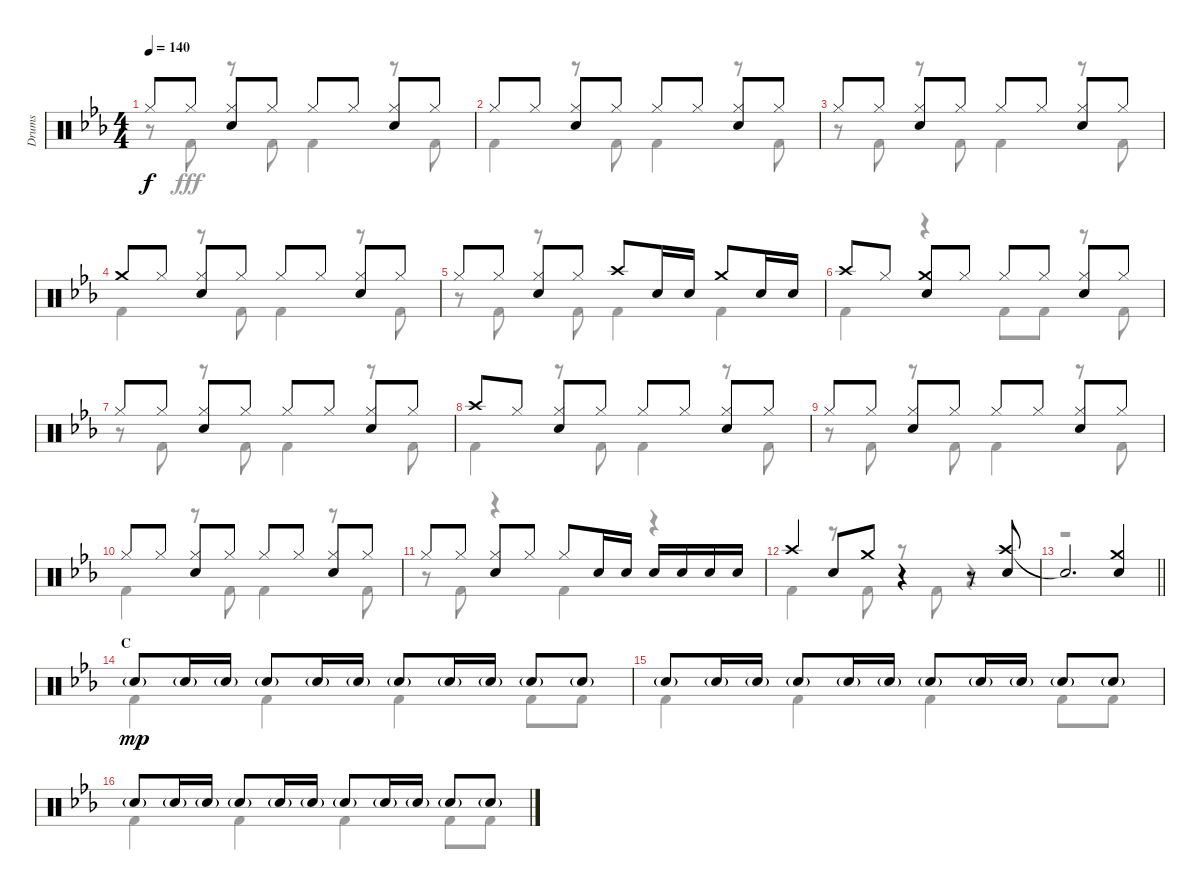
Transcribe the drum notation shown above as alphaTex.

\track ("Drums" "Drums") {instrument percussion}
\staff {score}
\articulation defaults
\voice
\ts (4 4)
\tempo 140
\clef neutral
\ks eb "Hi-Hat (closed)".8{dy f} "Hi-Hat (closed)".8
("Hi-Hat (closed)" "Snare (hit) 2").8 "Hi-Hat (closed)".8 "Hi-Hat (closed)".8 "Hi-Hat (closed)".8 ("Hi-Hat (closed)" "Snare (hit) 2").8 "Hi-Hat (closed)".8 |
"Hi-Hat (closed)".8 "Hi-Hat (closed)".8 ("Hi-Hat (closed)" "Snare (hit) 2").8 "Hi-Hat (closed)".8 "Hi-Hat (closed)".8 "Hi-Hat (closed)".8 ("Hi-Hat (closed)" "Snare (hit) 2").8 "Hi-Hat (closed)".8 |
"Hi-Hat (closed)".8 "Hi-Hat (closed)".8 ("Hi-Hat (closed)" "Snare (hit) 2").8 "Hi-Hat (closed)".8 "Hi-Hat (closed)".8 "Hi-Hat (closed)".8 ("Hi-Hat (closed)" "Snare (hit) 2").8 "Hi-Hat (closed)".8 |
"Crash medium (hit)".8 "Hi-Hat (closed)".8 ("Hi-Hat (closed)" "Snare (hit) 2").8 "Hi-Hat (closed)".8 "Hi-Hat (closed)".8 "Hi-Hat (closed)".8 ("Hi-Hat (closed)" "Snare (hit) 2").8 "Hi-Hat (closed)".8 |
"Hi-Hat (closed)".8 "Hi-Hat (closed)".8 ("Hi-Hat (closed)" "Snare (hit) 2").8 "Hi-Hat (closed)".8 "Crash high (hit)".8 "Snare (hit) 2".16 "Snare (hit) 2".16 "Crash medium (hit)".8 "Snare (hit) 2".16 "Snare (hit) 2".16 |
"Crash high (hit)".8 "Hi-Hat (closed)".8 ("Crash medium (hit)" "Snare (hit) 2").8 "Hi-Hat (closed)".8 "Hi-Hat (closed)".8 "Hi-Hat (closed)".8 ("Hi-Hat (closed)" "Snare (hit) 2").8 "Hi-Hat (closed)".8 |
"Hi-Hat (closed)".8 "Hi-Hat (closed)".8 ("Hi-Hat (closed)" "Snare (hit) 2").8 "Hi-Hat (closed)".8 "Hi-Hat (closed)".8 "Hi-Hat (closed)".8 ("Hi-Hat (closed)" "Snare (hit) 2").8 "Hi-Hat (closed)".8 |
"Crash high (hit)".8 "Hi-Hat (closed)".8 ("Hi-Hat (closed)" "Snare (hit) 2").8 "Hi-Hat (closed)".8 "Hi-Hat (closed)".8 "Hi-Hat (closed)".8 ("Hi-Hat (closed)" "Snare (hit) 2").8 "Hi-Hat (closed)".8 |
"Hi-Hat (closed)".8 "Hi-Hat (closed)".8 ("Hi-Hat (closed)" "Snare (hit) 2").8 "Hi-Hat (closed)".8 "Hi-Hat (closed)".8 "Hi-Hat (closed)".8 ("Hi-Hat (closed)" "Snare (hit) 2").8 "Hi-Hat (closed)".8 |
"Hi-Hat (closed)".8 "Hi-Hat (closed)".8 ("Hi-Hat (closed)" "Snare (hit) 2").8 "Hi-Hat (closed)".8 "Hi-Hat (closed)".8 "Hi-Hat (closed)".8 ("Hi-Hat (closed)" "Snare (hit) 2").8 "Hi-Hat (closed)".8 |
"Hi-Hat (closed)".8 "Hi-Hat (closed)".8 ("Hi-Hat (closed)" "Snare (hit) 2").8 "Hi-Hat (closed)".8 "Hi-Hat (closed)".8 "Snare (hit) 2".16 "Snare (hit) 2".16 "Snare (hit) 2".16 "Snare (hit) 2".16 "Snare (hit) 2".16 "Snare (hit) 2".16 |
"Crash high (hit)".4 "Snare (hit) 2".8 "Crash medium (hit)".8 r.4 r.8 ("Crash high (hit)" "Snare (hit) 2").8 |
\barLineRight lightlight "Snare (hit)"{t}.2{d}
("Crash medium (hit)" "Snare (hit) 2").4 |
\section ("" "C")
"Snare (hit) 2"{g}.8{dy mp} "Snare (hit) 2"{g}.16 "Snare (hit) 2"{g}.16 "Snare (hit) 2"{g}.8 "Snare (hit) 2"{g}.16 "Snare (hit) 2"{g}.16 "Snare (hit) 2"{g}.8 "Snare (hit) 2"{g}.16 "Snare (hit) 2"{g}.16 "Snare (hit) 2"{g}.8 "Snare (hit) 2"{g}.8 |
"Snare (hit) 2"{g}.8 "Snare (hit) 2"{g}.16 "Snare (hit) 2"{g}.16 "Snare (hit) 2"{g}.8 "Snare (hit) 2"{g}.16 "Snare (hit) 2"{g}.16 "Snare (hit) 2"{g}.8 "Snare (hit) 2"{g}.16 "Snare (hit) 2"{g}.16 "Snare (hit) 2"{g}.8 "Snare (hit) 2"{g}.8 |
"Snare (hit) 2"{g}.8 "Snare (hit) 2"{g}.16 "Snare (hit) 2"{g}.16 "Snare (hit) 2"{g}.8 "Snare (hit) 2"{g}.16 "Snare (hit) 2"{g}.16 "Snare (hit) 2"{g}.8 "Snare (hit) 2"{g}.16 "Snare (hit) 2"{g}.16 "Snare (hit) 2"{g}.8 "Snare (hit) 2"{g}.8
\voice
\clef neutral
\ottava regular
\simile none
\ks eb
r.8{dy fff} "Kick (hit) 2".8 r.8 "Kick (hit) 2".8 "Kick (hit) 2".4 r.8 "Kick (hit) 2".8 |
"Kick (hit) 2".4 r.8 "Kick (hit) 2".8 "Kick (hit) 2".4 r.8 "Kick (hit) 2".8 |
r.8 "Kick (hit) 2".8 r.8 "Kick (hit) 2".8 "Kick (hit) 2".4 r.8 "Kick (hit) 2".8 |
"Kick (hit) 2".4 r.8 "Kick (hit) 2".8 "Kick (hit) 2".4 r.8 "Kick (hit) 2".8 |
r.8 "Kick (hit) 2".8 r.8 "Kick (hit) 2".8 "Kick (hit) 2".4 "Kick (hit) 2".4 |
"Kick (hit) 2".4 r.4 "Kick (hit) 2".8 "Kick (hit) 2".8 r.8 "Kick (hit) 2".8 |
r.8 "Kick (hit) 2".8 r.8 "Kick (hit) 2".8 "Kick (hit) 2".4 r.8 "Kick (hit) 2".8 |
"Kick (hit) 2".4 r.8 "Kick (hit) 2".8 "Kick (hit) 2".4 r.8 "Kick (hit) 2".8 |
r.8 "Kick (hit) 2".8 r.8 "Kick (hit) 2".8 "Kick (hit) 2".4 r.8 "Kick (hit) 2".8 |
"Kick (hit) 2".4 r.8 "Kick (hit) 2".8 "Kick (hit) 2".4 r.8 "Kick (hit) 2".8 |
r.8 "Kick (hit) 2".8 r.4 "Kick (hit) 2".4 r.4 |
"Kick (hit) 2".4 r.8 "Kick (hit) 2".8 r.8 "Kick (hit) 2".8 r.4 |
\barLineRight lightlight
r.1 |
"Kick (hit) 2".4 "Kick (hit) 2".4 "Kick (hit) 2".4 "Kick (hit) 2".8 "Kick (hit) 2".8 |
"Kick (hit) 2".4 "Kick (hit) 2".4 "Kick (hit) 2".4 "Kick (hit) 2".8 "Kick (hit) 2".8 |
"Kick (hit) 2".4 "Kick (hit) 2".4 "Kick (hit) 2".4 "Kick (hit) 2".8 "Kick (hit) 2".8
